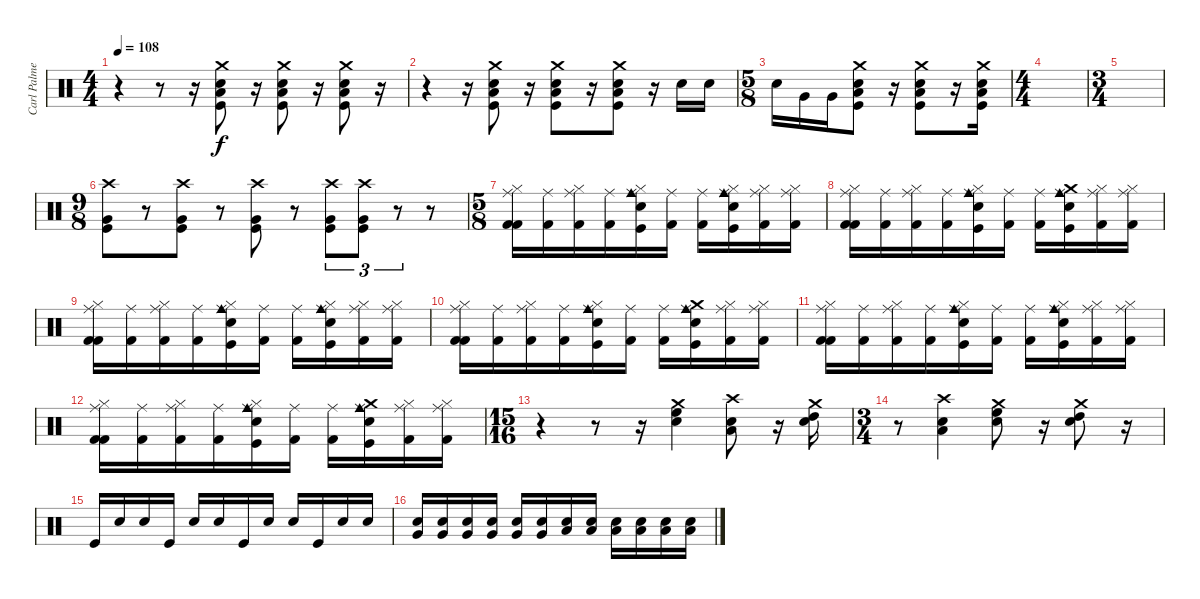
\track ("Carl Palmer (Percussion)" "Carl Palme") {instrument percussion}
\staff {score}
\articulation defaults
\ts (4 4)
\tempo 108
\clef neutral
\ks c
r.4{dy f} r.8 r.16 ("Low Tom (hit)" "Snare (hit) 2" "Kick (hit)" "Crash medium (hit)").8 r.16 ("Low Tom (hit)" "Snare (hit) 2" "Kick (hit)" "Crash medium (hit)").8 r.16 ("Low Tom (hit)" "Snare (hit) 2" "Kick (hit)" "Crash medium (hit)").8 r.16 |
r.4 r.16 ("Low Tom (hit)" "Snare (hit) 2" "Kick (hit)" "Crash medium (hit)").8 r.16 ("Low Tom (hit)" "Snare (hit) 2" "Kick (hit)" "Crash medium (hit)").8 r.16 ("Low Tom (hit)" "Snare (hit) 2" "Kick (hit)" "Crash medium (hit)").8 r.16 "Electric Snare (hit)".16 "Electric Snare (hit)".16 |
\ts (5 8)
"Electric Snare (hit)".16 "Very Low Tom (hit)".16 "Very Low Tom (hit)".16 ("Low Tom (hit)" "Snare (hit) 2" "Kick (hit)" "Crash medium (hit)").8 r.16 ("Low Tom (hit)" "Snare (hit) 2" "Kick (hit)" "Crash medium (hit)").8 r.16 ("Low Tom (hit)" "Snare (hit) 2" "Kick (hit)" "Crash medium (hit)").16 |
\ts (4 4)
|
\ts (3 4)
|
\ts (9 8)
("Kick (hit)" "Very Low Tom (hit)" "Crash high (hit)").8 r.8 ("Kick (hit)" "Very Low Tom (hit)" "Crash high (hit)").8 r.8 ("Kick (hit)" "Very Low Tom (hit)" "Crash high (hit)").8 r.8 ("Kick (hit)" "Very Low Tom (hit)" "Crash high (hit)").8{tu (3 2)} ("Kick (hit)" "Very Low Tom (hit)" "Crash high (hit)").8{tu (3 2)} r.8{tu (3 2)} r.8 |
\ts (5 8)
("Hi-Hat (closed)" "Kick (hit) 2" "Kick (hit) 2" "Ride (middle)").16 ("Ride (middle)" "Kick (hit) 2").16 ("Hi-Hat (closed)" "Ride (middle)" "Kick (hit) 2").16 ("Ride (middle)" "Kick (hit) 2").16 ("Hi-Hat (closed)" "Electric Snare (hit)" "Kick (hit)" "Cowbell medium (hit)" "Ride (middle)").16 ("Ride (middle)" "Kick (hit) 2").16 ("Ride (middle)" "Kick (hit) 2").16 ("Hi-Hat (closed)" "Snare (hit) 2" "Kick (hit)" "Cowbell medium (hit)" "Ride (middle)").16 ("Hi-Hat (closed)" "Ride (middle)" "Kick (hit) 2").16 ("Hi-Hat (closed)" "Ride (middle)" "Kick (hit) 2").16 |
("Hi-Hat (closed)" "Kick (hit) 2" "Kick (hit) 2" "Ride (middle)").16 ("Ride (middle)" "Kick (hit) 2").16 ("Hi-Hat (closed)" "Ride (middle)" "Kick (hit) 2").16 ("Ride (middle)" "Kick (hit) 2").16 ("Hi-Hat (closed)" "Electric Snare (hit)" "Kick (hit)" "Cowbell medium (hit)" "Ride (middle)").16 ("Ride (middle)" "Kick (hit) 2").16 ("Ride (middle)" "Kick (hit) 2").16 ("Crash medium (hit)" "Snare (hit) 2" "Kick (hit)" "Cowbell medium (hit)" "Ride (middle)").16 ("Hi-Hat (closed)" "Ride (middle)" "Kick (hit) 2").16 ("Hi-Hat (closed)" "Ride (middle)" "Kick (hit) 2").16 |
("Hi-Hat (closed)" "Kick (hit) 2" "Kick (hit) 2" "Ride (middle)").16 ("Ride (middle)" "Kick (hit) 2").16 ("Hi-Hat (closed)" "Ride (middle)" "Kick (hit) 2").16 ("Ride (middle)" "Kick (hit) 2").16 ("Hi-Hat (closed)" "Electric Snare (hit)" "Kick (hit)" "Cowbell medium (hit)" "Ride (middle)").16 ("Ride (middle)" "Kick (hit) 2").16 ("Ride (middle)" "Kick (hit) 2").16 ("Hi-Hat (closed)" "Snare (hit) 2" "Kick (hit)" "Cowbell medium (hit)" "Ride (middle)").16 ("Hi-Hat (closed)" "Ride (middle)" "Kick (hit) 2").16 ("Hi-Hat (closed)" "Ride (middle)" "Kick (hit) 2").16 |
("Hi-Hat (closed)" "Kick (hit) 2" "Kick (hit) 2" "Ride (middle)").16 ("Ride (middle)" "Kick (hit) 2").16 ("Hi-Hat (closed)" "Ride (middle)" "Kick (hit) 2").16 ("Ride (middle)" "Kick (hit) 2").16 ("Hi-Hat (closed)" "Electric Snare (hit)" "Kick (hit)" "Cowbell medium (hit)" "Ride (middle)").16 ("Ride (middle)" "Kick (hit) 2").16 ("Ride (middle)" "Kick (hit) 2").16 ("Crash medium (hit)" "Snare (hit) 2" "Kick (hit)" "Cowbell medium (hit)" "Ride (middle)").16 ("Hi-Hat (closed)" "Ride (middle)" "Kick (hit) 2").16 ("Hi-Hat (closed)" "Ride (middle)" "Kick (hit) 2").16 |
("Hi-Hat (closed)" "Kick (hit) 2" "Kick (hit) 2" "Ride (middle)").16 ("Ride (middle)" "Kick (hit) 2").16 ("Hi-Hat (closed)" "Ride (middle)" "Kick (hit) 2").16 ("Ride (middle)" "Kick (hit) 2").16 ("Hi-Hat (closed)" "Electric Snare (hit)" "Kick (hit)" "Cowbell medium (hit)" "Ride (middle)").16 ("Ride (middle)" "Kick (hit) 2").16 ("Ride (middle)" "Kick (hit) 2").16 ("Hi-Hat (closed)" "Snare (hit) 2" "Kick (hit)" "Cowbell medium (hit)" "Ride (middle)").16 ("Hi-Hat (closed)" "Ride (middle)" "Kick (hit) 2").16 ("Hi-Hat (closed)" "Ride (middle)" "Kick (hit) 2").16 |
("Hi-Hat (closed)" "Kick (hit) 2" "Kick (hit) 2" "Ride (middle)").16 ("Ride (middle)" "Kick (hit) 2").16 ("Hi-Hat (closed)" "Ride (middle)" "Kick (hit) 2").16 ("Ride (middle)" "Kick (hit) 2").16 ("Hi-Hat (closed)" "Electric Snare (hit)" "Kick (hit)" "Cowbell medium (hit)" "Ride (middle)").16 ("Ride (middle)" "Kick (hit) 2").16 ("Ride (middle)" "Kick (hit) 2").16 ("Crash medium (hit)" "Snare (hit) 2" "Kick (hit)" "Cowbell medium (hit)" "Ride (middle)").16 ("Hi-Hat (closed)" "Ride (middle)" "Kick (hit) 2").16 ("Hi-Hat (closed)" "Ride (middle)" "Kick (hit) 2").16 |
\ts (15 16)
r.4 r.8 r.16 ("Snare (hit) 2" "High Floor Tom (hit)" "Crash medium (hit)").4 ("Snare (hit) 2" "Low Tom (hit)" "Crash high (hit)").8 r.16 ("Snare (hit) 2" "High Tom (hit)" "Crash medium (hit)").16 |
\ts (3 4)
r.8 ("Snare (hit) 2" "Low Tom (hit)" "Crash high (hit)").4 ("Snare (hit) 2" "High Floor Tom (hit)" "Crash medium (hit)").8 r.16 ("Snare (hit) 2" "High Tom (hit)" "Crash medium (hit)").8 r.16 |
"Kick (hit)".16 "Snare (hit) 2".16 "Snare (hit) 2".16 "Kick (hit)".16 "Snare (hit) 2".16 "Snare (hit) 2".16 "Kick (hit)".16 "Snare (hit) 2".16 "Snare (hit) 2".16 "Kick (hit)".16 "Snare (hit) 2".16 "Snare (hit) 2".16 |
("Snare (hit) 2" "Very Low Tom (hit)").16 ("Snare (hit) 2" "Very Low Tom (hit)").16 ("Snare (hit) 2" "Very Low Tom (hit)").16 ("Snare (hit) 2" "Very Low Tom (hit)").16 ("Snare (hit) 2" "Very Low Tom (hit)").16 ("Snare (hit) 2" "Very Low Tom (hit)").16 ("Snare (hit) 2" "Low Floor Tom (hit)").16 ("Snare (hit) 2" "Low Floor Tom (hit)").16 ("Snare (hit) 2" "Low Floor Tom (hit)").16 ("Snare (hit) 2" "Low Floor Tom (hit)").16 ("Snare (hit) 2" "Low Floor Tom (hit)").16 ("Snare (hit) 2" "Low Floor Tom (hit)").16
